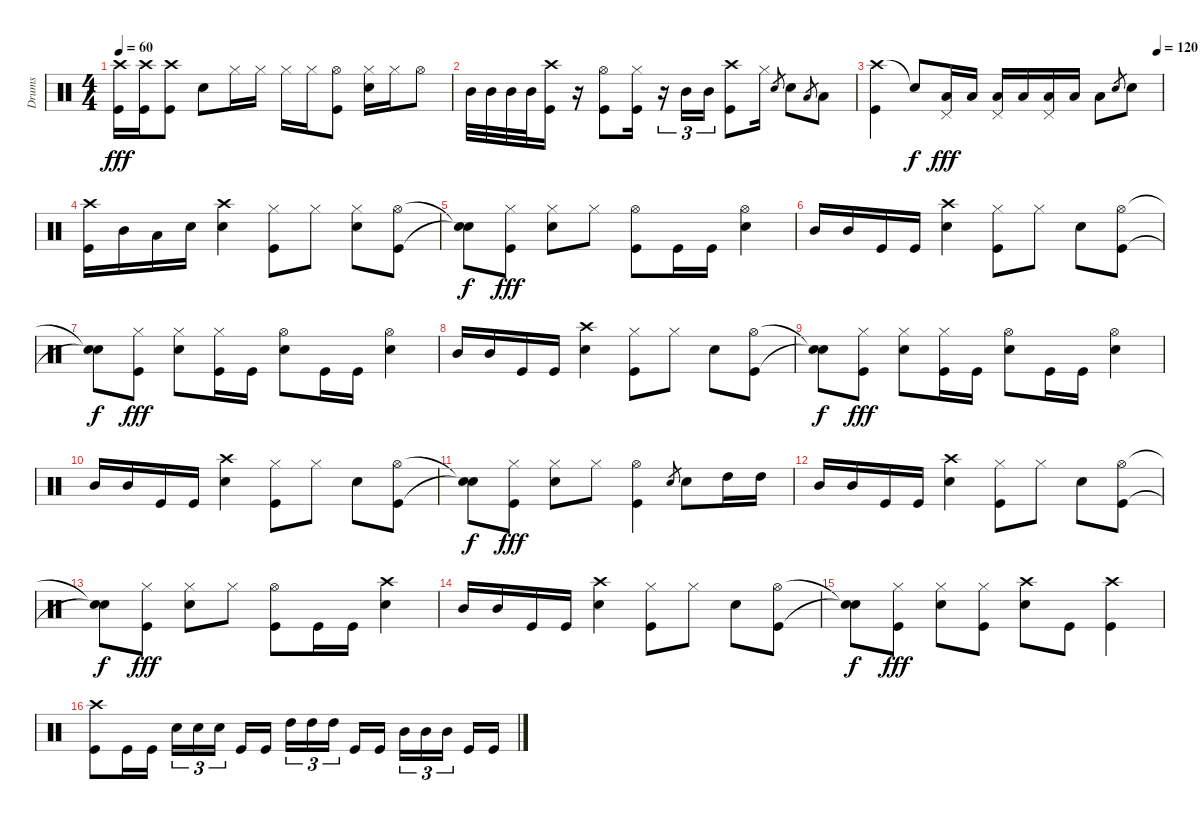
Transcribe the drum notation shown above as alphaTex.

\track ("Drums" "Drums") {instrument percussion}
\staff {score}
\articulation defaults
\ts (4 4)
\tempo 60
\clef neutral
\ks c
("Crash high (hit)" "Kick (hit)").16{dy fff} ("Crash high (hit)" "Kick (hit)").16 ("Crash high (hit)" "Kick (hit)").8 "Snare (hit) 2".8 "Hi-Hat (closed)".16 "Hi-Hat (closed)".16 "Hi-Hat (closed)".16 "Hi-Hat (closed)".16 ("Hi-Hat (open)" "Kick (hit)").8 ("Hi-Hat (closed)" "Snare (hit) 2").16 "Hi-Hat (closed)".16 "Hi-Hat (open)".8 |
"Mid Tom (hit)".32 "Mid Tom (hit)".32 "Mid Tom (hit)".32 "Mid Tom (hit)".32 ("Crash high (hit)" "Kick (hit)").16 r.16 ("Hi-Hat (open)" "Kick (hit)").8 ("Hi-Hat (closed)" "Kick (hit)").16 r.16{tu (3 2)} "Mid Tom (hit)".16{tu (3 2)} "Mid Tom (hit)".16{tu (3 2)} ("Crash high (hit)" "Kick (hit)").8 "Hi-Hat (closed)".16 "Snare (hit) 2".8{gr} "Snare (hit) 2".8 "Low Tom (hit)".8{gr} "Low Tom (hit)".8 |
\tempo (120 0.984375)
("Crash high (hit)" "Kick (hit)").4 "Snare (hit)"{t}.8{dy f} ("Pedal Hi-Hat (hit)" "Low Tom (hit)").16{dy fff} "Low Tom (hit)".16 ("Pedal Hi-Hat (hit)" "Low Tom (hit)").16 "Low Tom (hit)".16 ("Pedal Hi-Hat (hit)" "Low Tom (hit)").16 "Low Tom (hit)".16 "Low Tom (hit)".8 "Snare (hit) 2".8{gr} "Snare (hit) 2".8 |
("Crash high (hit)" "Kick (hit)").16 "Mid Tom (hit)".16 "Low Tom (hit)".16 "Snare (hit) 2".16 ("Crash high (hit)" "Snare (hit) 2").4 ("Hi-Hat (closed)" "Kick (hit)").8 "Hi-Hat (closed)".8 ("Hi-Hat (closed)" "Snare (hit) 2").8 ("Hi-Hat (open)" "Kick (hit)").8 |
("Snare (hit)"{t} "Snare (hit)"{t}).8{dy f} ("Hi-Hat (closed)" "Kick (hit)").8{dy fff} ("Hi-Hat (closed)" "Snare (hit) 2").8 "Hi-Hat (closed)".8 ("Hi-Hat (open)" "Kick (hit)").8 "Kick (hit)".16 "Kick (hit)".16 ("Hi-Hat (open)" "Snare (hit) 2").4 |
"Mid Tom (hit)".16 "Mid Tom (hit)".16 "Kick (hit)".16 "Kick (hit)".16 ("Crash high (hit)" "Snare (hit) 2").4 ("Hi-Hat (closed)" "Kick (hit)").8 "Hi-Hat (closed)".8 "Snare (hit) 2".8 ("Hi-Hat (open)" "Kick (hit)").8 |
("Snare (hit)"{t} "Snare (hit)"{t}).8{dy f} ("Hi-Hat (closed)" "Kick (hit)").8{dy fff} ("Hi-Hat (closed)" "Snare (hit) 2").8 ("Hi-Hat (closed)" "Kick (hit)").16 "Kick (hit)".16 ("Hi-Hat (open)" "Snare (hit) 2").8 "Kick (hit)".16 "Kick (hit)".16 ("Hi-Hat (open)" "Snare (hit) 2").4 |
"Mid Tom (hit)".16 "Mid Tom (hit)".16 "Kick (hit)".16 "Kick (hit)".16 ("Crash high (hit)" "Snare (hit) 2").4 ("Hi-Hat (closed)" "Kick (hit)").8 "Hi-Hat (closed)".8 "Snare (hit) 2".8 ("Hi-Hat (open)" "Kick (hit)").8 |
("Snare (hit)"{t} "Snare (hit)"{t}).8{dy f} ("Hi-Hat (closed)" "Kick (hit)").8{dy fff} ("Hi-Hat (closed)" "Snare (hit) 2").8 ("Hi-Hat (closed)" "Kick (hit)").16 "Kick (hit)".16 ("Hi-Hat (open)" "Snare (hit) 2").8 "Kick (hit)".16 "Kick (hit)".16 ("Hi-Hat (open)" "Snare (hit) 2").4 |
"Mid Tom (hit)".16 "Mid Tom (hit)".16 "Kick (hit)".16 "Kick (hit)".16 ("Crash high (hit)" "Snare (hit) 2").4 ("Hi-Hat (closed)" "Kick (hit)").8 "Hi-Hat (closed)".8 "Snare (hit) 2".8 ("Hi-Hat (open)" "Kick (hit)").8 |
("Snare (hit)"{t} "Snare (hit)"{t}).8{dy f} ("Hi-Hat (closed)" "Kick (hit)").8{dy fff} ("Hi-Hat (closed)" "Snare (hit) 2").8 "Hi-Hat (closed)".8 ("Hi-Hat (open)" "Kick (hit)").4 "Snare (hit) 2".8{gr} "Snare (hit) 2".8 "High Tom (hit)".16 "High Tom (hit)".16 |
"Mid Tom (hit)".16 "Mid Tom (hit)".16 "Kick (hit)".16 "Kick (hit)".16 ("Crash high (hit)" "Snare (hit) 2").4 ("Hi-Hat (closed)" "Kick (hit)").8 "Hi-Hat (closed)".8 "Snare (hit) 2".8 ("Hi-Hat (open)" "Kick (hit)").8 |
("Snare (hit)"{t} "Snare (hit)"{t}).8{dy f} ("Hi-Hat (closed)" "Kick (hit)").8{dy fff} ("Hi-Hat (closed)" "Snare (hit) 2").8 "Hi-Hat (closed)".8 ("Hi-Hat (open)" "Kick (hit)").8 "Kick (hit)".16 "Kick (hit)".16 ("Crash high (hit)" "Snare (hit) 2").4 |
"Mid Tom (hit)".16 "Mid Tom (hit)".16 "Kick (hit)".16 "Kick (hit)".16 ("Crash high (hit)" "Snare (hit) 2").4 ("Hi-Hat (closed)" "Kick (hit)").8 "Hi-Hat (closed)".8 "Snare (hit) 2".8 ("Hi-Hat (open)" "Kick (hit)").8 |
("Snare (hit)"{t} "Snare (hit)"{t}).8{dy f} ("Hi-Hat (closed)" "Kick (hit)").8{dy fff} ("Hi-Hat (closed)" "Snare (hit) 2").8 ("Hi-Hat (closed)" "Kick (hit)").8 ("Crash high (hit)" "Snare (hit) 2").8 "Kick (hit)".8 ("Crash high (hit)" "Kick (hit)").4 |
("Crash high (hit)" "Kick (hit)").8 "Kick (hit)".16 "Kick (hit)".16 "Snare (hit) 2".16{tu (3 2)} "Snare (hit) 2".16{tu (3 2)} "Snare (hit) 2".16{tu (3 2)} "Kick (hit)".16 "Kick (hit)".16 "High Tom (hit)".16{tu (3 2)} "High Tom (hit)".16{tu (3 2)} "High Tom (hit)".16{tu (3 2)} "Kick (hit)".16 "Kick (hit)".16 "Mid Tom (hit)".16{tu (3 2)} "Mid Tom (hit)".16{tu (3 2)} "Mid Tom (hit)".16{tu (3 2)} "Kick (hit)".16 "Kick (hit)".16
